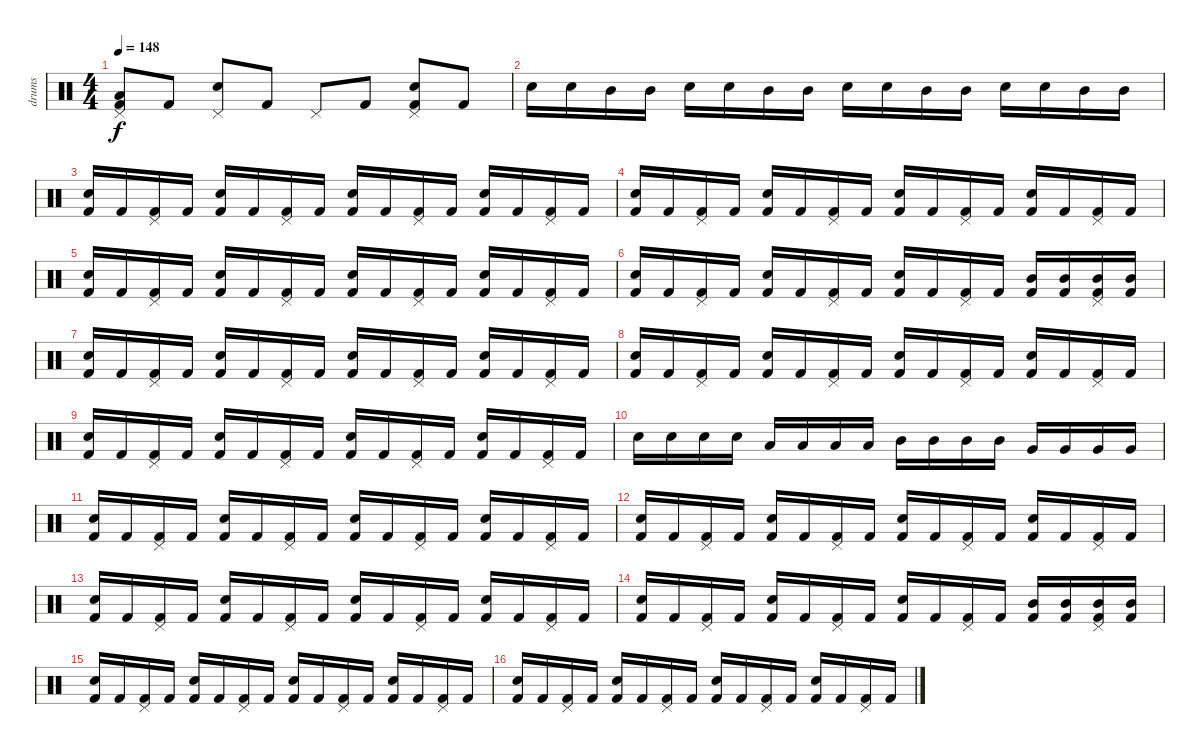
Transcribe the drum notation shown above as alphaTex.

\track ("drums" "drums") {instrument percussion}
\staff {score}
\articulation defaults
\ts (4 4)
\tempo 148
\clef neutral
\ks c
("Pedal Hi-Hat (hit)" "Low Floor Tom (hit)" "Kick (hit) 2").8{dy f} "Kick (hit) 2".8 ("Pedal Hi-Hat (hit)" "Snare (hit) 2").8 "Kick (hit) 2".8 "Pedal Hi-Hat (hit)".8 "Kick (hit) 2".8 ("Pedal Hi-Hat (hit)" "Snare (hit) 2" "Kick (hit) 2").8 "Kick (hit) 2".8 |
"Snare (hit) 2".16 "Snare (hit) 2".16 "Mid Tom (hit)".16 "Mid Tom (hit)".16 "Electric Snare (hit)".16 "Electric Snare (hit)".16 "Mid Tom (hit)".16 "Mid Tom (hit)".16 "Snare (hit) 2".16 "Snare (hit) 2".16 "Mid Tom (hit)".16 "Mid Tom (hit)".16 "Electric Snare (hit)".16 "Electric Snare (hit)".16 "Mid Tom (hit)".16 "Mid Tom (hit)".16 |
("Snare (hit) 2" "Kick (hit) 2").16 "Kick (hit) 2".16 ("Pedal Hi-Hat (hit)" "Kick (hit) 2").16 "Kick (hit) 2".16 ("Electric Snare (hit)" "Kick (hit) 2").16 "Kick (hit) 2".16 ("Pedal Hi-Hat (hit)" "Kick (hit) 2").16 "Kick (hit) 2".16 ("Snare (hit) 2" "Kick (hit) 2").16 "Kick (hit) 2".16 ("Pedal Hi-Hat (hit)" "Kick (hit) 2").16 "Kick (hit) 2".16 ("Electric Snare (hit)" "Kick (hit) 2").16 "Kick (hit) 2".16 ("Pedal Hi-Hat (hit)" "Kick (hit) 2").16 "Kick (hit) 2".16 |
("Snare (hit) 2" "Kick (hit) 2").16 "Kick (hit) 2".16 ("Pedal Hi-Hat (hit)" "Kick (hit) 2").16 "Kick (hit) 2".16 ("Electric Snare (hit)" "Kick (hit) 2").16 "Kick (hit) 2".16 ("Pedal Hi-Hat (hit)" "Kick (hit) 2").16 "Kick (hit) 2".16 ("Snare (hit) 2" "Kick (hit) 2").16 "Kick (hit) 2".16 ("Pedal Hi-Hat (hit)" "Kick (hit) 2").16 "Kick (hit) 2".16 ("Electric Snare (hit)" "Kick (hit) 2").16 "Kick (hit) 2".16 ("Pedal Hi-Hat (hit)" "Kick (hit) 2").16 "Kick (hit) 2".16 |
("Snare (hit) 2" "Kick (hit) 2").16 "Kick (hit) 2".16 ("Pedal Hi-Hat (hit)" "Kick (hit) 2").16 "Kick (hit) 2".16 ("Electric Snare (hit)" "Kick (hit) 2").16 "Kick (hit) 2".16 ("Pedal Hi-Hat (hit)" "Kick (hit) 2").16 "Kick (hit) 2".16 ("Snare (hit) 2" "Kick (hit) 2").16 "Kick (hit) 2".16 ("Pedal Hi-Hat (hit)" "Kick (hit) 2").16 "Kick (hit) 2".16 ("Electric Snare (hit)" "Kick (hit) 2").16 "Kick (hit) 2".16 ("Pedal Hi-Hat (hit)" "Kick (hit) 2").16 "Kick (hit) 2".16 |
("Snare (hit) 2" "Kick (hit) 2").16 "Kick (hit) 2".16 ("Pedal Hi-Hat (hit)" "Kick (hit) 2").16 "Kick (hit) 2".16 ("Electric Snare (hit)" "Kick (hit) 2").16 "Kick (hit) 2".16 ("Pedal Hi-Hat (hit)" "Kick (hit) 2").16 "Kick (hit) 2".16 ("Snare (hit) 2" "Kick (hit) 2").16 "Kick (hit) 2".16 ("Pedal Hi-Hat (hit)" "Kick (hit) 2").16 "Kick (hit) 2".16 ("Mid Tom (hit)" "Kick (hit) 2").16 ("Mid Tom (hit)" "Kick (hit) 2").16 ("Pedal Hi-Hat (hit)" "Mid Tom (hit)" "Kick (hit) 2").16 ("Mid Tom (hit)" "Kick (hit) 2").16 |
("Snare (hit) 2" "Kick (hit) 2").16 "Kick (hit) 2".16 ("Pedal Hi-Hat (hit)" "Kick (hit) 2").16 "Kick (hit) 2".16 ("Electric Snare (hit)" "Kick (hit) 2").16 "Kick (hit) 2".16 ("Pedal Hi-Hat (hit)" "Kick (hit) 2").16 "Kick (hit) 2".16 ("Snare (hit) 2" "Kick (hit) 2").16 "Kick (hit) 2".16 ("Pedal Hi-Hat (hit)" "Kick (hit) 2").16 "Kick (hit) 2".16 ("Electric Snare (hit)" "Kick (hit) 2").16 "Kick (hit) 2".16 ("Pedal Hi-Hat (hit)" "Kick (hit) 2").16 "Kick (hit) 2".16 |
("Snare (hit) 2" "Kick (hit) 2").16 "Kick (hit) 2".16 ("Pedal Hi-Hat (hit)" "Kick (hit) 2").16 "Kick (hit) 2".16 ("Electric Snare (hit)" "Kick (hit) 2").16 "Kick (hit) 2".16 ("Pedal Hi-Hat (hit)" "Kick (hit) 2").16 "Kick (hit) 2".16 ("Snare (hit) 2" "Kick (hit) 2").16 "Kick (hit) 2".16 ("Pedal Hi-Hat (hit)" "Kick (hit) 2").16 "Kick (hit) 2".16 ("Electric Snare (hit)" "Kick (hit) 2").16 "Kick (hit) 2".16 ("Pedal Hi-Hat (hit)" "Kick (hit) 2").16 "Kick (hit) 2".16 |
("Snare (hit) 2" "Kick (hit) 2").16 "Kick (hit) 2".16 ("Pedal Hi-Hat (hit)" "Kick (hit) 2").16 "Kick (hit) 2".16 ("Electric Snare (hit)" "Kick (hit) 2").16 "Kick (hit) 2".16 ("Pedal Hi-Hat (hit)" "Kick (hit) 2").16 "Kick (hit) 2".16 ("Snare (hit) 2" "Kick (hit) 2").16 "Kick (hit) 2".16 ("Pedal Hi-Hat (hit)" "Kick (hit) 2").16 "Kick (hit) 2".16 ("Electric Snare (hit)" "Kick (hit) 2").16 "Kick (hit) 2".16 ("Pedal Hi-Hat (hit)" "Kick (hit) 2").16 "Kick (hit) 2".16 |
"Snare (hit) 2".16 "Snare (hit) 2".16 "Snare (hit) 2".16 "Snare (hit) 2".16 "Low Tom (hit)".16 "Low Tom (hit)".16 "Low Tom (hit)".16 "Low Tom (hit)".16 "Mid Tom (hit)".16 "Mid Tom (hit)".16 "Mid Tom (hit)".16 "Mid Tom (hit)".16 "Very Low Tom (hit)".16 "Very Low Tom (hit)".16 "Very Low Tom (hit)".16 "Very Low Tom (hit)".16 |
("Snare (hit) 2" "Kick (hit) 2").16 "Kick (hit) 2".16 ("Pedal Hi-Hat (hit)" "Kick (hit) 2").16 "Kick (hit) 2".16 ("Electric Snare (hit)" "Kick (hit) 2").16 "Kick (hit) 2".16 ("Pedal Hi-Hat (hit)" "Kick (hit) 2").16 "Kick (hit) 2".16 ("Snare (hit) 2" "Kick (hit) 2").16 "Kick (hit) 2".16 ("Pedal Hi-Hat (hit)" "Kick (hit) 2").16 "Kick (hit) 2".16 ("Electric Snare (hit)" "Kick (hit) 2").16 "Kick (hit) 2".16 ("Pedal Hi-Hat (hit)" "Kick (hit) 2").16 "Kick (hit) 2".16 |
("Snare (hit) 2" "Kick (hit) 2").16 "Kick (hit) 2".16 ("Pedal Hi-Hat (hit)" "Kick (hit) 2").16 "Kick (hit) 2".16 ("Electric Snare (hit)" "Kick (hit) 2").16 "Kick (hit) 2".16 ("Pedal Hi-Hat (hit)" "Kick (hit) 2").16 "Kick (hit) 2".16 ("Snare (hit) 2" "Kick (hit) 2").16 "Kick (hit) 2".16 ("Pedal Hi-Hat (hit)" "Kick (hit) 2").16 "Kick (hit) 2".16 ("Electric Snare (hit)" "Kick (hit) 2").16 "Kick (hit) 2".16 ("Pedal Hi-Hat (hit)" "Kick (hit) 2").16 "Kick (hit) 2".16 |
("Snare (hit) 2" "Kick (hit) 2").16 "Kick (hit) 2".16 ("Pedal Hi-Hat (hit)" "Kick (hit) 2").16 "Kick (hit) 2".16 ("Electric Snare (hit)" "Kick (hit) 2").16 "Kick (hit) 2".16 ("Pedal Hi-Hat (hit)" "Kick (hit) 2").16 "Kick (hit) 2".16 ("Snare (hit) 2" "Kick (hit) 2").16 "Kick (hit) 2".16 ("Pedal Hi-Hat (hit)" "Kick (hit) 2").16 "Kick (hit) 2".16 ("Electric Snare (hit)" "Kick (hit) 2").16 "Kick (hit) 2".16 ("Pedal Hi-Hat (hit)" "Kick (hit) 2").16 "Kick (hit) 2".16 |
("Snare (hit) 2" "Kick (hit) 2").16 "Kick (hit) 2".16 ("Pedal Hi-Hat (hit)" "Kick (hit) 2").16 "Kick (hit) 2".16 ("Electric Snare (hit)" "Kick (hit) 2").16 "Kick (hit) 2".16 ("Pedal Hi-Hat (hit)" "Kick (hit) 2").16 "Kick (hit) 2".16 ("Snare (hit) 2" "Kick (hit) 2").16 "Kick (hit) 2".16 ("Pedal Hi-Hat (hit)" "Kick (hit) 2").16 "Kick (hit) 2".16 ("Mid Tom (hit)" "Kick (hit) 2").16 ("Mid Tom (hit)" "Kick (hit) 2").16 ("Pedal Hi-Hat (hit)" "Mid Tom (hit)" "Kick (hit) 2").16 ("Mid Tom (hit)" "Kick (hit) 2").16 |
("Snare (hit) 2" "Kick (hit) 2").16 "Kick (hit) 2".16 ("Pedal Hi-Hat (hit)" "Kick (hit) 2").16 "Kick (hit) 2".16 ("Electric Snare (hit)" "Kick (hit) 2").16 "Kick (hit) 2".16 ("Pedal Hi-Hat (hit)" "Kick (hit) 2").16 "Kick (hit) 2".16 ("Snare (hit) 2" "Kick (hit) 2").16 "Kick (hit) 2".16 ("Pedal Hi-Hat (hit)" "Kick (hit) 2").16 "Kick (hit) 2".16 ("Electric Snare (hit)" "Kick (hit) 2").16 "Kick (hit) 2".16 ("Pedal Hi-Hat (hit)" "Kick (hit) 2").16 "Kick (hit) 2".16 |
("Snare (hit) 2" "Kick (hit) 2").16 "Kick (hit) 2".16 ("Pedal Hi-Hat (hit)" "Kick (hit) 2").16 "Kick (hit) 2".16 ("Electric Snare (hit)" "Kick (hit) 2").16 "Kick (hit) 2".16 ("Pedal Hi-Hat (hit)" "Kick (hit) 2").16 "Kick (hit) 2".16 ("Snare (hit) 2" "Kick (hit) 2").16 "Kick (hit) 2".16 ("Pedal Hi-Hat (hit)" "Kick (hit) 2").16 "Kick (hit) 2".16 ("Electric Snare (hit)" "Kick (hit) 2").16 "Kick (hit) 2".16 ("Pedal Hi-Hat (hit)" "Kick (hit) 2").16 "Kick (hit) 2".16
